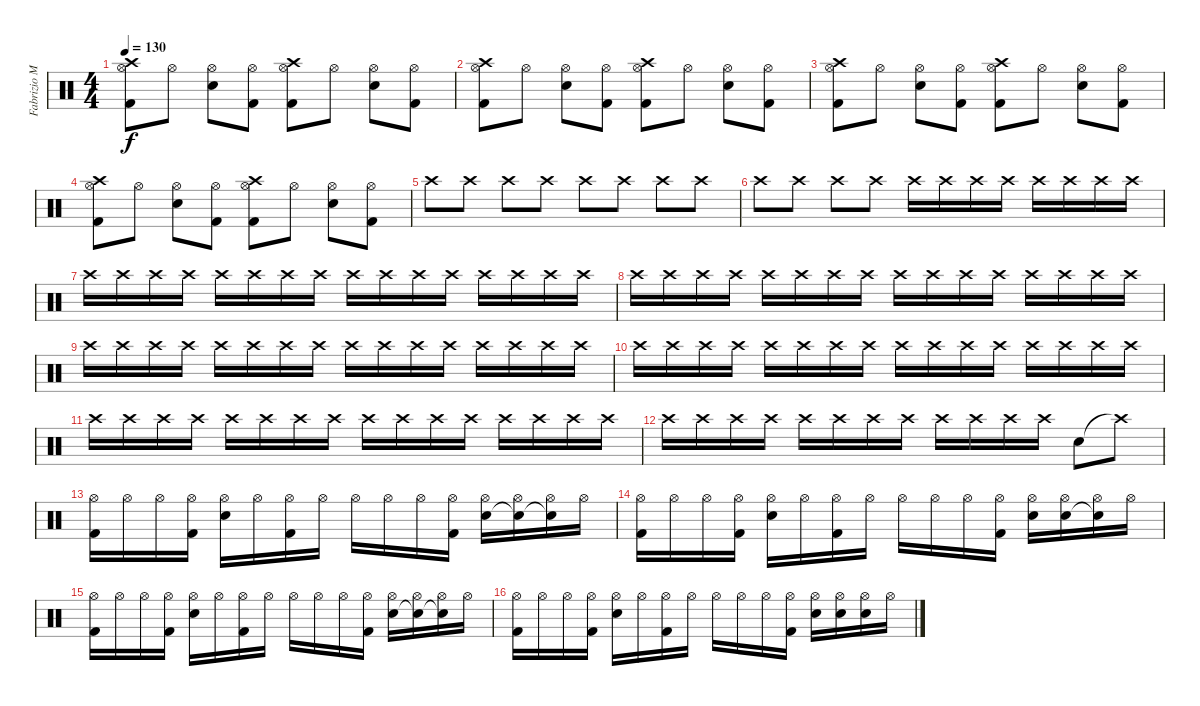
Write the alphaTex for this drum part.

\track ("Fabrizio Moretti" "Fabrizio M") {instrument percussion bank 127}
\staff {score}
\articulation defaults
\ts (4 4)
\tempo 130
\clef neutral
\ks c
("Crash high (hit)" "Hi-Hat (open)" "Kick (hit) 2").8{dy f} "Hi-Hat (open)".8 ("Hi-Hat (open)" "Electric Snare (hit)").8 ("Hi-Hat (open)" "Kick (hit) 2").8 ("Crash high (hit)" "Hi-Hat (open)" "Kick (hit) 2").8 "Hi-Hat (open)".8 ("Hi-Hat (open)" "Electric Snare (hit)").8 ("Hi-Hat (open)" "Kick (hit) 2").8 |
("Crash high (hit)" "Hi-Hat (open)" "Kick (hit) 2").8 "Hi-Hat (open)".8 ("Hi-Hat (open)" "Electric Snare (hit)").8 ("Hi-Hat (open)" "Kick (hit) 2").8 ("Crash high (hit)" "Hi-Hat (open)" "Kick (hit) 2").8 "Hi-Hat (open)".8 ("Hi-Hat (open)" "Electric Snare (hit)").8 ("Hi-Hat (open)" "Kick (hit) 2").8 |
("Crash high (hit)" "Hi-Hat (open)" "Kick (hit) 2").8 "Hi-Hat (open)".8 ("Hi-Hat (open)" "Electric Snare (hit)").8 ("Hi-Hat (open)" "Kick (hit) 2").8 ("Crash high (hit)" "Hi-Hat (open)" "Kick (hit) 2").8 "Hi-Hat (open)".8 ("Hi-Hat (open)" "Electric Snare (hit)").8 ("Hi-Hat (open)" "Kick (hit) 2").8 |
("Crash high (hit)" "Hi-Hat (open)" "Kick (hit) 2").8 "Hi-Hat (open)".8 ("Hi-Hat (open)" "Electric Snare (hit)").8 ("Hi-Hat (open)" "Kick (hit) 2").8 ("Crash high (hit)" "Hi-Hat (open)" "Kick (hit) 2").8 "Hi-Hat (open)".8 ("Hi-Hat (open)" "Electric Snare (hit)").8 ("Hi-Hat (open)" "Kick (hit) 2").8 |
"Crash high (hit)".8 "Crash high (hit)".8 "Crash high (hit)".8 "Crash high (hit)".8 "Crash high (hit)".8 "Crash high (hit)".8 "Crash high (hit)".8 "Crash high (hit)".8 |
"Crash high (hit)".8 "Crash high (hit)".8 "Crash high (hit)".8 "Crash high (hit)".8 "Crash high (hit)".16 "Crash high (hit)".16 "Crash high (hit)".16 "Crash high (hit)".16 "Crash high (hit)".16 "Crash high (hit)".16 "Crash high (hit)".16 "Crash high (hit)".16 |
"Crash high (hit)".16 "Crash high (hit)".16 "Crash high (hit)".16 "Crash high (hit)".16 "Crash high (hit)".16 "Crash high (hit)".16 "Crash high (hit)".16 "Crash high (hit)".16 "Crash high (hit)".16 "Crash high (hit)".16 "Crash high (hit)".16 "Crash high (hit)".16 "Crash high (hit)".16 "Crash high (hit)".16 "Crash high (hit)".16 "Crash high (hit)".16 |
"Crash high (hit)".16 "Crash high (hit)".16 "Crash high (hit)".16 "Crash high (hit)".16 "Crash high (hit)".16 "Crash high (hit)".16 "Crash high (hit)".16 "Crash high (hit)".16 "Crash high (hit)".16 "Crash high (hit)".16 "Crash high (hit)".16 "Crash high (hit)".16 "Crash high (hit)".16 "Crash high (hit)".16 "Crash high (hit)".16 "Crash high (hit)".16 |
"Crash high (hit)".16 "Crash high (hit)".16 "Crash high (hit)".16 "Crash high (hit)".16 "Crash high (hit)".16 "Crash high (hit)".16 "Crash high (hit)".16 "Crash high (hit)".16 "Crash high (hit)".16 "Crash high (hit)".16 "Crash high (hit)".16 "Crash high (hit)".16 "Crash high (hit)".16 "Crash high (hit)".16 "Crash high (hit)".16 "Crash high (hit)".16 |
"Crash high (hit)".16 "Crash high (hit)".16 "Crash high (hit)".16 "Crash high (hit)".16 "Crash high (hit)".16 "Crash high (hit)".16 "Crash high (hit)".16 "Crash high (hit)".16 "Crash high (hit)".16 "Crash high (hit)".16 "Crash high (hit)".16 "Crash high (hit)".16 "Crash high (hit)".16 "Crash high (hit)".16 "Crash high (hit)".16 "Crash high (hit)".16 |
"Crash high (hit)".16 "Crash high (hit)".16 "Crash high (hit)".16 "Crash high (hit)".16 "Crash high (hit)".16 "Crash high (hit)".16 "Crash high (hit)".16 "Crash high (hit)".16 "Crash high (hit)".16 "Crash high (hit)".16 "Crash high (hit)".16 "Crash high (hit)".16 "Crash high (hit)".16 "Crash high (hit)".16 "Crash high (hit)".16 "Crash high (hit)".16 |
"Crash high (hit)".16 "Crash high (hit)".16 "Crash high (hit)".16 "Crash high (hit)".16 "Crash high (hit)".16 "Crash high (hit)".16 "Crash high (hit)".16 "Crash high (hit)".16 "Crash high (hit)".16 "Crash high (hit)".16 "Crash high (hit)".16 "Crash high (hit)".16 "Electric Snare (hit)".8 "Crash high (hit)"{t}.8 |
("Hi-Hat (open)" "Kick (hit) 2").16 "Hi-Hat (open)".16 "Hi-Hat (open)".16 ("Hi-Hat (open)" "Kick (hit) 2").16 ("Hi-Hat (open)" "Electric Snare (hit)").16 "Hi-Hat (open)".16 ("Hi-Hat (open)" "Kick (hit) 2").16 "Hi-Hat (open)".16 "Hi-Hat (open)".16 "Hi-Hat (open)".16 "Hi-Hat (open)".16 ("Hi-Hat (open)" "Kick (hit) 2").16 ("Hi-Hat (open)" "Electric Snare (hit)").16 ("Hi-Hat (open)" "Electric Snare (hit)"{t}).16 ("Hi-Hat (open)" "Electric Snare (hit)"{t}).16 "Hi-Hat (open)".16 |
("Hi-Hat (open)" "Kick (hit) 2").16 "Hi-Hat (open)".16 "Hi-Hat (open)".16 ("Hi-Hat (open)" "Kick (hit) 2").16 ("Hi-Hat (open)" "Electric Snare (hit)").16 "Hi-Hat (open)".16 ("Hi-Hat (open)" "Kick (hit) 2").16 "Hi-Hat (open)".16 "Hi-Hat (open)".16 "Hi-Hat (open)".16 "Hi-Hat (open)".16 ("Hi-Hat (open)" "Kick (hit) 2").16 ("Hi-Hat (open)" "Electric Snare (hit)").16 ("Hi-Hat (open)" "Electric Snare (hit)").16 ("Hi-Hat (open)" "Electric Snare (hit)"{t}).16 "Hi-Hat (open)".16 |
("Hi-Hat (open)" "Kick (hit) 2").16 "Hi-Hat (open)".16 "Hi-Hat (open)".16 ("Hi-Hat (open)" "Kick (hit) 2").16 ("Hi-Hat (open)" "Electric Snare (hit)").16 "Hi-Hat (open)".16 ("Hi-Hat (open)" "Kick (hit) 2").16 "Hi-Hat (open)".16 "Hi-Hat (open)".16 "Hi-Hat (open)".16 "Hi-Hat (open)".16 ("Hi-Hat (open)" "Kick (hit) 2").16 ("Hi-Hat (open)" "Electric Snare (hit)").16 ("Hi-Hat (open)" "Electric Snare (hit)"{t}).16 ("Hi-Hat (open)" "Electric Snare (hit)"{t}).16 "Hi-Hat (open)".16 |
("Hi-Hat (open)" "Kick (hit) 2").16 "Hi-Hat (open)".16 "Hi-Hat (open)".16 ("Hi-Hat (open)" "Kick (hit) 2").16 ("Hi-Hat (open)" "Electric Snare (hit)").16 "Hi-Hat (open)".16 ("Hi-Hat (open)" "Kick (hit) 2").16 "Hi-Hat (open)".16 "Hi-Hat (open)".16 "Hi-Hat (open)".16 "Hi-Hat (open)".16 ("Hi-Hat (open)" "Kick (hit) 2").16 ("Hi-Hat (open)" "Electric Snare (hit)").16 ("Hi-Hat (open)" "Electric Snare (hit)").16 ("Hi-Hat (open)" "Electric Snare (hit)").16 "Hi-Hat (open)".16
